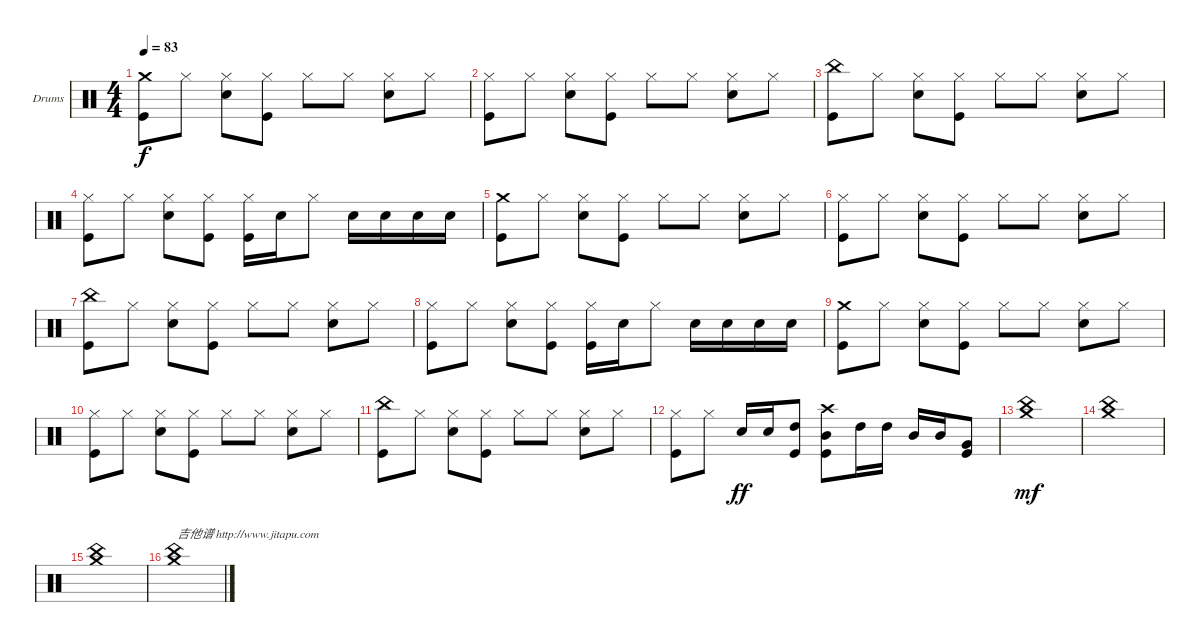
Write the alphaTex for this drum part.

\bracketExtendMode groupsimilarinstruments
\firstSystemTrackNameOrientation horizontal
\otherSystemsTrackNameOrientation horizontal
\track ("Drumkit" "Drums") {instrument percussion}
\staff {score}
\articulation defaults
\ts (4 4)
\tempo 83
\clef neutral
\ks c
("Kick (hit)" "Crash medium (hit)").8{dy f} "Hi-Hat (closed)".8 ("Snare (hit) 2" "Hi-Hat (closed)").8 ("Hi-Hat (closed)" "Kick (hit)").8 "Hi-Hat (closed)".8 "Hi-Hat (closed)".8 ("Snare (hit) 2" "Hi-Hat (closed)").8 "Hi-Hat (closed)".8 |
("Kick (hit)" "Hi-Hat (closed)").8 "Hi-Hat (closed)".8 ("Snare (hit) 2" "Hi-Hat (closed)").8 ("Hi-Hat (closed)" "Kick (hit)").8 "Hi-Hat (closed)".8 "Hi-Hat (closed)".8 ("Snare (hit) 2" "Hi-Hat (closed)").8 "Hi-Hat (closed)".8 |
("Kick (hit)" "China (hit)").8 "Hi-Hat (closed)".8 ("Snare (hit) 2" "Hi-Hat (closed)").8 ("Hi-Hat (closed)" "Kick (hit)").8 "Hi-Hat (closed)".8 "Hi-Hat (closed)".8 ("Snare (hit) 2" "Hi-Hat (closed)").8 "Hi-Hat (closed)".8 |
("Kick (hit)" "Hi-Hat (closed)").8 "Hi-Hat (closed)".8 ("Snare (hit) 2" "Hi-Hat (closed)").8 ("Hi-Hat (closed)" "Kick (hit)").8 ("Hi-Hat (closed)" "Kick (hit)").16 "Snare (hit) 2".16 "Hi-Hat (closed)".8 "Snare (hit) 2".16 "Snare (hit) 2".16 "Snare (hit) 2".16 "Snare (hit) 2".16 |
("Kick (hit)" "Crash medium (hit)").8 "Hi-Hat (closed)".8 ("Snare (hit) 2" "Hi-Hat (closed)").8 ("Hi-Hat (closed)" "Kick (hit)").8 "Hi-Hat (closed)".8 "Hi-Hat (closed)".8 ("Snare (hit) 2" "Hi-Hat (closed)").8 "Hi-Hat (closed)".8 |
("Kick (hit)" "Hi-Hat (closed)").8 "Hi-Hat (closed)".8 ("Snare (hit) 2" "Hi-Hat (closed)").8 ("Hi-Hat (closed)" "Kick (hit)").8 "Hi-Hat (closed)".8 "Hi-Hat (closed)".8 ("Snare (hit) 2" "Hi-Hat (closed)").8 "Hi-Hat (closed)".8 |
("Kick (hit)" "China (hit)").8 "Hi-Hat (closed)".8 ("Snare (hit) 2" "Hi-Hat (closed)").8 ("Hi-Hat (closed)" "Kick (hit)").8 "Hi-Hat (closed)".8 "Hi-Hat (closed)".8 ("Snare (hit) 2" "Hi-Hat (closed)").8 "Hi-Hat (closed)".8 |
("Kick (hit)" "Hi-Hat (closed)").8 "Hi-Hat (closed)".8 ("Snare (hit) 2" "Hi-Hat (closed)").8 ("Hi-Hat (closed)" "Kick (hit)").8 ("Hi-Hat (closed)" "Kick (hit)").16 "Snare (hit) 2".16 "Hi-Hat (closed)".8 "Snare (hit) 2".16 "Snare (hit) 2".16 "Snare (hit) 2".16 "Snare (hit) 2".16 |
("Kick (hit)" "Crash medium (hit)").8 "Hi-Hat (closed)".8 ("Snare (hit) 2" "Hi-Hat (closed)").8 ("Hi-Hat (closed)" "Kick (hit)").8 "Hi-Hat (closed)".8 "Hi-Hat (closed)".8 ("Snare (hit) 2" "Hi-Hat (closed)").8 "Hi-Hat (closed)".8 |
("Kick (hit)" "Hi-Hat (closed)").8 "Hi-Hat (closed)".8 ("Snare (hit) 2" "Hi-Hat (closed)").8 ("Hi-Hat (closed)" "Kick (hit)").8 "Hi-Hat (closed)".8 "Hi-Hat (closed)".8 ("Snare (hit) 2" "Hi-Hat (closed)").8 "Hi-Hat (closed)".8 |
("Kick (hit)" "China (hit)").8 "Hi-Hat (closed)".8 ("Snare (hit) 2" "Hi-Hat (closed)").8 ("Hi-Hat (closed)" "Kick (hit)").8 "Hi-Hat (closed)".8 "Hi-Hat (closed)".8 ("Snare (hit) 2" "Hi-Hat (closed)").8 "Hi-Hat (closed)".8 |
("Kick (hit)" "Hi-Hat (closed)").8 "Hi-Hat (closed)".8 "Snare (hit) 2".16{dy ff} "Snare (hit) 2".16 ("Kick (hit)" "High Tom (hit)").8 ("Mid Tom (hit)" "Kick (hit)" "Crash high (hit)").8 "High Tom (hit)".16 "High Tom (hit)".16 "Mid Tom (hit)".16 "Mid Tom (hit)".16 ("Very Low Tom (hit)" "Kick (hit)").8 |
("China (hit)" "Crash medium (hit)").1{dy mf} |
("China (hit)" "Crash medium (hit)").1 |
("Crash medium (hit)" "China (hit)").1 |
("Crash medium (hit)" "China (hit)").1{txt "吉他谱 http://www.jitapu.com"}
